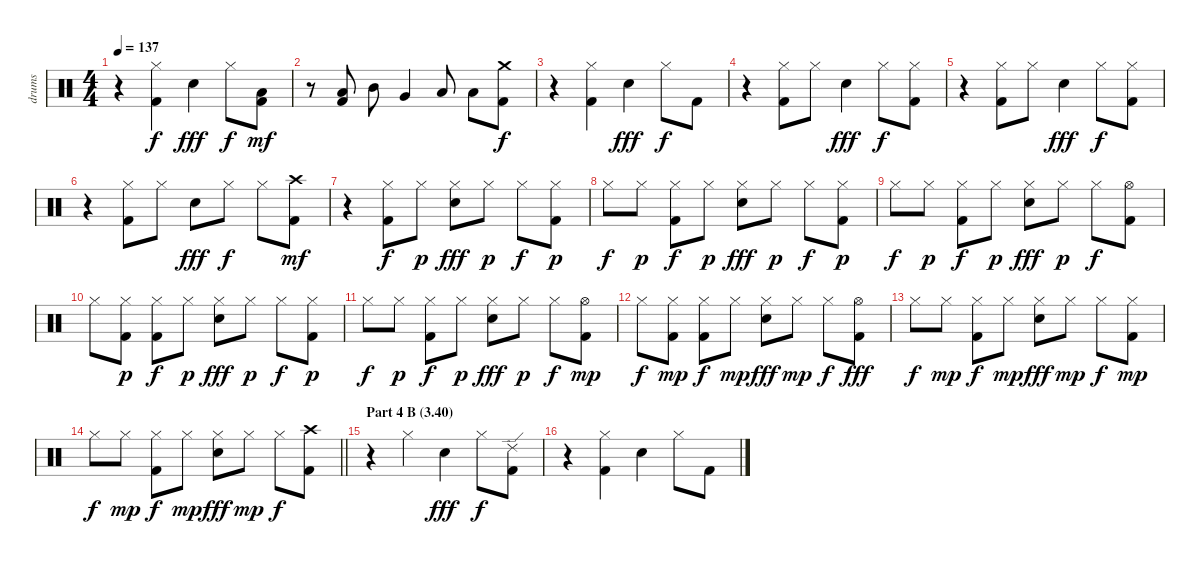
\track ("drums" "drums") {instrument percussion}
\staff {score}
\articulation defaults
\ts (4 4)
\tempo 137
\clef neutral
\ks c
r.4{dy f} ("Hi-Hat (closed)" "Kick (hit) 2").4 "Electric Snare (hit)".4{dy fff} "Hi-Hat (closed)".8{dy f} ("Low Floor Tom (hit)" "Kick (hit) 2").8{dy mf} |
r.8 ("Kick (hit) 2" "Low Floor Tom (hit)").8 "Mid Tom (hit)".8 "Very Low Tom (hit)".4 "Low Tom (hit)".8 "Low Tom (hit)".8 ("Crash medium (hit)" "Kick (hit) 2").8{dy f} |
r.4 ("Hi-Hat (closed)" "Kick (hit) 2").4 "Electric Snare (hit)".4{dy fff} "Hi-Hat (closed)".8{dy f} "Kick (hit) 2".8 |
r.4 ("Hi-Hat (closed)" "Kick (hit) 2").8 "Hi-Hat (closed)".8 "Electric Snare (hit)".4{dy fff} "Hi-Hat (closed)".8{dy f} ("Kick (hit) 2" "Hi-Hat (closed)").8 |
r.4 ("Hi-Hat (closed)" "Kick (hit) 2").8 "Hi-Hat (closed)".8 "Electric Snare (hit)".4{dy fff} "Hi-Hat (closed)".8{dy f} ("Kick (hit) 2" "Hi-Hat (closed)").8 |
r.4 ("Kick (hit) 2" "Hi-Hat (closed)").8 "Hi-Hat (closed)".8 "Electric Snare (hit)".8{dy fff} "Hi-Hat (closed)".8{dy f} "Hi-Hat (closed)".8 ("Crash high (hit)" "Kick (hit) 2").8{dy mf} |
r.4 ("Hi-Hat (closed)" "Kick (hit) 2").8{dy f} "Hi-Hat (closed)".8{dy p} ("Hi-Hat (closed)" "Electric Snare (hit)").8{dy fff} "Hi-Hat (closed)".8{dy p} "Hi-Hat (closed)".8{dy f} ("Kick (hit) 2" "Hi-Hat (closed)").8{dy p} |
"Hi-Hat (closed)".8{dy f} "Hi-Hat (closed)".8{dy p} ("Hi-Hat (closed)" "Kick (hit) 2").8{dy f} "Hi-Hat (closed)".8{dy p} ("Hi-Hat (closed)" "Electric Snare (hit)").8{dy fff} "Hi-Hat (closed)".8{dy p} "Hi-Hat (closed)".8{dy f} ("Kick (hit) 2" "Hi-Hat (closed)").8{dy p} |
"Hi-Hat (closed)".8{dy f} "Hi-Hat (closed)".8{dy p} ("Kick (hit) 2" "Hi-Hat (closed)").8{dy f} "Hi-Hat (closed)".8{dy p} ("Hi-Hat (closed)" "Electric Snare (hit)").8{dy fff} "Hi-Hat (closed)".8{dy p} "Hi-Hat (closed)".8{dy f} ("Hi-Hat (open)" "Kick (hit) 2").8 |
"Hi-Hat (closed)".8 ("Kick (hit) 2" "Hi-Hat (closed)").8{dy p} ("Kick (hit) 2" "Hi-Hat (closed)").8{dy f} "Hi-Hat (closed)".8{dy p} ("Electric Snare (hit)" "Hi-Hat (closed)").8{dy fff} "Hi-Hat (closed)".8{dy p} "Hi-Hat (closed)".8{dy f} ("Kick (hit) 2" "Hi-Hat (closed)").8{dy p} |
"Hi-Hat (closed)".8{dy f} "Hi-Hat (closed)".8{dy p} ("Kick (hit) 2" "Hi-Hat (closed)").8{dy f} "Hi-Hat (closed)".8{dy p} ("Electric Snare (hit)" "Hi-Hat (closed)").8{dy fff} "Hi-Hat (closed)".8{dy p} "Hi-Hat (closed)".8{dy f} ("Kick (hit) 2" "Hi-Hat (open)").8{dy mp} |
"Hi-Hat (closed)".8{dy f} ("Hi-Hat (closed)" "Kick (hit) 2").8{dy mp} ("Hi-Hat (closed)" "Kick (hit) 2").8{dy f} "Hi-Hat (closed)".8{dy mp} ("Electric Snare (hit)" "Hi-Hat (closed)").8{dy fff} "Hi-Hat (closed)".8{dy mp} "Hi-Hat (closed)".8{dy f} ("Kick (hit) 2" "Hi-Hat (open)").8{dy fff} |
"Hi-Hat (closed)".8{dy f} "Hi-Hat (closed)".8{dy mp} ("Kick (hit) 2" "Hi-Hat (closed)").8{dy f} "Hi-Hat (closed)".8{dy mp} ("Electric Snare (hit)" "Hi-Hat (closed)").8{dy fff} "Hi-Hat (closed)".8{dy mp} "Hi-Hat (closed)".8{dy f} ("Hi-Hat (closed)" "Kick (hit) 2").8{dy mp} |
\barLineRight lightlight "Hi-Hat (closed)".8{dy f} "Hi-Hat (closed)".8{dy mp}
("Kick (hit) 2" "Hi-Hat (closed)").8{dy f} "Hi-Hat (closed)".8{dy mp} ("Hi-Hat (closed)" "Electric Snare (hit)").8{dy fff} "Hi-Hat (closed)".8{dy mp} "Hi-Hat (closed)".8{dy f} ("Kick (hit) 2" "Crash high (hit)").8 |
\section ("" "Part 4 B (3.40)")
r.4 "Hi-Hat (closed)".4 "Electric Snare (hit)".4{dy fff} "Hi-Hat (closed)".8{dy f} ("Kick (hit) 2" "Ride (edge) 2").8 |
r.4 ("Hi-Hat (closed)" "Kick (hit) 2").4 "Snare (hit) 2".4 "Hi-Hat (closed)".8 "Kick (hit) 2".8
